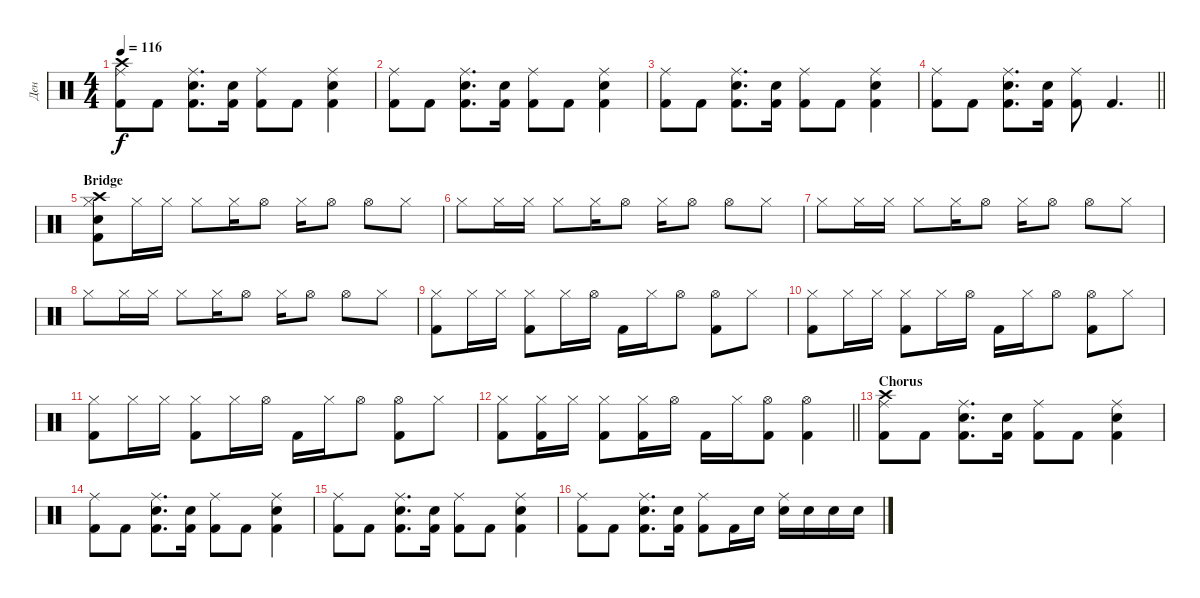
\track ("Ден" "Ден") {instrument percussion}
\staff {score}
\articulation defaults
\ts (4 4)
\tempo 116
\clef neutral
\ks c
("Crash high (hit)" "Ride (middle)" "Kick (hit) 2").8{dy f} "Kick (hit) 2".8 ("Ride (middle)" "Electric Snare (hit)" "Kick (hit) 2").8{d} ("Electric Snare (hit)" "Kick (hit) 2").16 ("Ride (middle)" "Kick (hit) 2").8 "Kick (hit) 2".8 ("Ride (middle)" "Electric Snare (hit)" "Kick (hit) 2").4 |
("Ride (middle)" "Kick (hit) 2").8 "Kick (hit) 2".8 ("Ride (middle)" "Electric Snare (hit)" "Kick (hit) 2").8{d} ("Electric Snare (hit)" "Kick (hit) 2").16 ("Ride (middle)" "Kick (hit) 2").8 "Kick (hit) 2".8 ("Ride (middle)" "Electric Snare (hit)" "Kick (hit) 2").4 |
("Ride (middle)" "Kick (hit) 2").8 "Kick (hit) 2".8 ("Ride (middle)" "Electric Snare (hit)" "Kick (hit) 2").8{d} ("Electric Snare (hit)" "Kick (hit) 2").16 ("Ride (middle)" "Kick (hit) 2").8 "Kick (hit) 2".8 ("Ride (middle)" "Electric Snare (hit)" "Kick (hit) 2").4 |
\barLineRight lightlight
("Ride (middle)" "Kick (hit) 2").8 "Kick (hit) 2".8 ("Ride (middle)" "Electric Snare (hit)" "Kick (hit) 2").8{d} ("Electric Snare (hit)" "Kick (hit) 2").16 ("Ride (middle)" "Kick (hit) 2").8 "Kick (hit) 2".4{d} |
\section ("" "Bridge")
("Crash high (hit)" "Hi-Hat (closed)" "Electric Snare (hit)" "Kick (hit) 2").8 "Hi-Hat (closed)".16 "Hi-Hat (closed)".16 "Hi-Hat (closed)".8 "Hi-Hat (closed)".16 "Hi-Hat (open)".8 "Hi-Hat (closed)".16 "Hi-Hat (open)".8 "Hi-Hat (open)".8 "Hi-Hat (closed)".8 |
"Hi-Hat (closed)".8 "Hi-Hat (closed)".16 "Hi-Hat (closed)".16 "Hi-Hat (closed)".8 "Hi-Hat (closed)".16 "Hi-Hat (open)".8 "Hi-Hat (closed)".16 "Hi-Hat (open)".8 "Hi-Hat (open)".8 "Hi-Hat (closed)".8 |
"Hi-Hat (closed)".8 "Hi-Hat (closed)".16 "Hi-Hat (closed)".16 "Hi-Hat (closed)".8 "Hi-Hat (closed)".16 "Hi-Hat (open)".8 "Hi-Hat (closed)".16 "Hi-Hat (open)".8 "Hi-Hat (open)".8 "Hi-Hat (closed)".8 |
"Hi-Hat (closed)".8 "Hi-Hat (closed)".16 "Hi-Hat (closed)".16 "Hi-Hat (closed)".8 "Hi-Hat (closed)".16 "Hi-Hat (open)".8 "Hi-Hat (closed)".16 "Hi-Hat (open)".8 "Hi-Hat (open)".8 "Hi-Hat (closed)".8 |
("Hi-Hat (closed)" "Kick (hit) 2").8 "Hi-Hat (closed)".16 "Hi-Hat (closed)".16 ("Hi-Hat (closed)" "Kick (hit) 2").8 "Hi-Hat (closed)".16 "Hi-Hat (open)".16 "Kick (hit) 2".16 "Hi-Hat (closed)".16 "Hi-Hat (open)".8 ("Hi-Hat (open)" "Kick (hit) 2").8 "Hi-Hat (closed)".8 |
("Hi-Hat (closed)" "Kick (hit) 2").8 "Hi-Hat (closed)".16 "Hi-Hat (closed)".16 ("Hi-Hat (closed)" "Kick (hit) 2").8 "Hi-Hat (closed)".16 "Hi-Hat (open)".16 "Kick (hit) 2".16 "Hi-Hat (closed)".16 "Hi-Hat (open)".8 ("Hi-Hat (open)" "Kick (hit) 2").8 "Hi-Hat (closed)".8 |
("Hi-Hat (closed)" "Kick (hit) 2").8 "Hi-Hat (closed)".16 "Hi-Hat (closed)".16 ("Hi-Hat (closed)" "Kick (hit) 2").8 "Hi-Hat (closed)".16 "Hi-Hat (open)".16 "Kick (hit) 2".16 "Hi-Hat (closed)".16 "Hi-Hat (open)".8 ("Hi-Hat (open)" "Kick (hit) 2").8 "Hi-Hat (closed)".8 |
\barLineRight lightlight
("Hi-Hat (closed)" "Kick (hit) 2").8 ("Hi-Hat (closed)" "Kick (hit) 2").16 "Hi-Hat (closed)".16 ("Hi-Hat (closed)" "Kick (hit) 2").8 ("Hi-Hat (closed)" "Kick (hit) 2").16 "Hi-Hat (open)".16 "Kick (hit) 2".16 "Hi-Hat (closed)".16 ("Hi-Hat (open)" "Kick (hit) 2").8 ("Hi-Hat (open)" "Kick (hit) 2").4 |
\section ("" "Chorus")
("Crash high (hit)" "Ride (middle)" "Kick (hit) 2").8 "Kick (hit) 2".8 ("Ride (middle)" "Electric Snare (hit)" "Kick (hit) 2").8{d} ("Electric Snare (hit)" "Kick (hit) 2").16 ("Ride (middle)" "Kick (hit) 2").8 "Kick (hit) 2".8 ("Ride (middle)" "Electric Snare (hit)" "Kick (hit) 2").4 |
("Ride (middle)" "Kick (hit) 2").8 "Kick (hit) 2".8 ("Ride (middle)" "Electric Snare (hit)" "Kick (hit) 2").8{d} ("Electric Snare (hit)" "Kick (hit) 2").16 ("Ride (middle)" "Kick (hit) 2").8 "Kick (hit) 2".8 ("Ride (middle)" "Electric Snare (hit)" "Kick (hit) 2").4 |
("Ride (middle)" "Kick (hit) 2").8 "Kick (hit) 2".8 ("Ride (middle)" "Electric Snare (hit)" "Kick (hit) 2").8{d} ("Electric Snare (hit)" "Kick (hit) 2").16 ("Ride (middle)" "Kick (hit) 2").8 "Kick (hit) 2".8 ("Ride (middle)" "Electric Snare (hit)" "Kick (hit) 2").4 |
("Ride (middle)" "Kick (hit) 2").8 "Kick (hit) 2".8 ("Ride (middle)" "Electric Snare (hit)" "Kick (hit) 2").8{d} ("Electric Snare (hit)" "Kick (hit) 2").16 ("Ride (middle)" "Kick (hit) 2").8 "Kick (hit) 2".16 "Electric Snare (hit)".16 ("Ride (middle)" "Electric Snare (hit)").16 "Electric Snare (hit)".16 "Electric Snare (hit)".16 "Electric Snare (hit)".16
